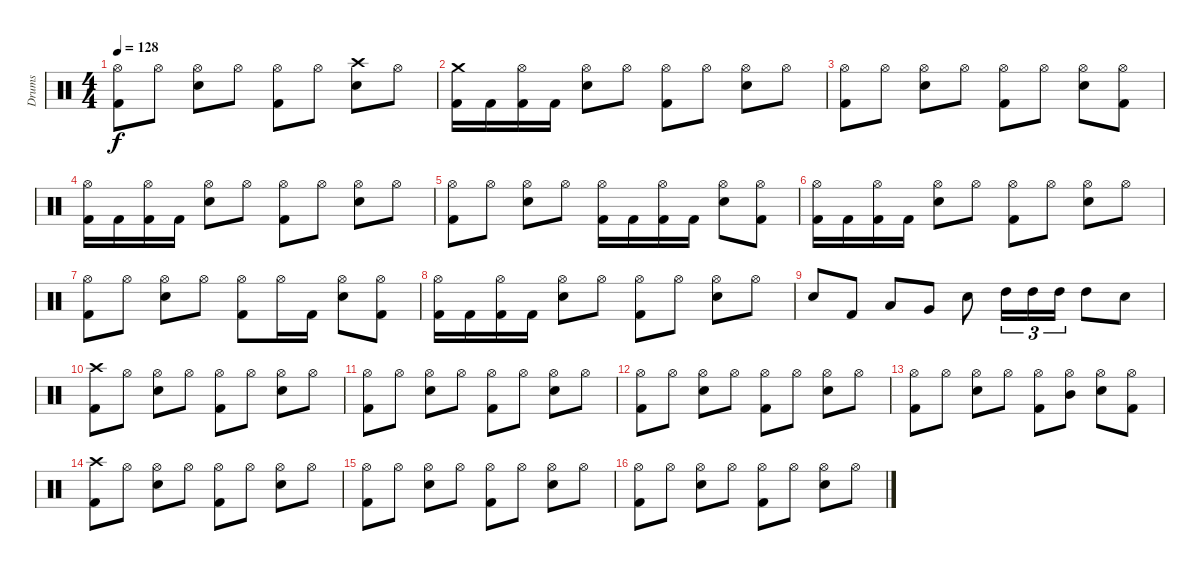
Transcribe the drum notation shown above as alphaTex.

\track ("Drums" "Drums") {instrument percussion}
\staff {score}
\articulation defaults
\ts (4 4)
\tempo 128
\clef neutral
\ks c
("Hi-Hat (open)" "Kick (hit) 2").8{dy f} "Hi-Hat (open)".8 ("Hi-Hat (open)" "Snare (hit) 2").8 "Hi-Hat (open)".8 ("Hi-Hat (open)" "Kick (hit) 2").8 "Hi-Hat (open)".8 ("Crash high (hit)" "Snare (hit) 2").8 "Hi-Hat (open)".8 |
("Crash medium (hit)" "Kick (hit) 2").16 "Kick (hit) 2".16 ("Hi-Hat (open)" "Kick (hit) 2").16 "Kick (hit) 2".16 ("Hi-Hat (open)" "Snare (hit) 2").8 "Hi-Hat (open)".8 ("Hi-Hat (open)" "Kick (hit) 2").8 "Hi-Hat (open)".8 ("Hi-Hat (open)" "Snare (hit) 2").8 "Hi-Hat (open)".8 |
("Hi-Hat (open)" "Kick (hit) 2").8 "Hi-Hat (open)".8 ("Hi-Hat (open)" "Snare (hit) 2").8 "Hi-Hat (open)".8 ("Hi-Hat (open)" "Kick (hit) 2").8 "Hi-Hat (open)".8 ("Hi-Hat (open)" "Snare (hit) 2").8 ("Hi-Hat (open)" "Kick (hit) 2").8 |
("Hi-Hat (open)" "Kick (hit) 2").16 "Kick (hit) 2".16 ("Hi-Hat (open)" "Kick (hit) 2").16 "Kick (hit) 2".16 ("Hi-Hat (open)" "Snare (hit) 2").8 "Hi-Hat (open)".8 ("Hi-Hat (open)" "Kick (hit) 2").8 "Hi-Hat (open)".8 ("Hi-Hat (open)" "Snare (hit) 2").8 "Hi-Hat (open)".8 |
("Hi-Hat (open)" "Kick (hit) 2").8 "Hi-Hat (open)".8 ("Hi-Hat (open)" "Snare (hit) 2").8 "Hi-Hat (open)".8 ("Hi-Hat (open)" "Kick (hit) 2").16 "Kick (hit) 2".16 ("Hi-Hat (open)" "Kick (hit) 2").16 "Kick (hit) 2".16 ("Hi-Hat (open)" "Snare (hit) 2").8 ("Hi-Hat (open)" "Kick (hit) 2").8 |
("Hi-Hat (open)" "Kick (hit) 2").16 "Kick (hit) 2".16 ("Hi-Hat (open)" "Kick (hit) 2").16 "Kick (hit) 2".16 ("Hi-Hat (open)" "Snare (hit) 2").8 "Hi-Hat (open)".8 ("Hi-Hat (open)" "Kick (hit) 2").8 "Hi-Hat (open)".8 ("Hi-Hat (open)" "Snare (hit) 2").8 "Hi-Hat (open)".8 |
("Hi-Hat (open)" "Kick (hit) 2").8 "Hi-Hat (open)".8 ("Hi-Hat (open)" "Snare (hit) 2").8 "Hi-Hat (open)".8 ("Hi-Hat (open)" "Kick (hit) 2").8 "Hi-Hat (open)".16 "Kick (hit) 2".16 ("Hi-Hat (open)" "Snare (hit) 2").8 ("Hi-Hat (open)" "Kick (hit) 2").8 |
("Hi-Hat (open)" "Kick (hit) 2").16 "Kick (hit) 2".16 ("Hi-Hat (open)" "Kick (hit) 2").16 "Kick (hit) 2".16 ("Hi-Hat (open)" "Snare (hit) 2").8 "Hi-Hat (open)".8 ("Hi-Hat (open)" "Kick (hit) 2").8 "Hi-Hat (open)".8 ("Hi-Hat (open)" "Snare (hit) 2").8 "Hi-Hat (open)".8 |
"Snare (hit) 2".8 "Kick (hit) 2".8 "Low Tom (hit)".8 "Very Low Tom (hit)".8 "Snare (hit) 2".8 "High Tom (hit)".16{tu (3 2)} "High Tom (hit)".16{tu (3 2)} "High Tom (hit)".16{tu (3 2)} "High Tom (hit)".8 "Snare (hit) 2".8 |
("Crash high (hit)" "Kick (hit) 2").8 "Hi-Hat (open)".8 ("Hi-Hat (open)" "Snare (hit) 2").8 "Hi-Hat (open)".8 ("Hi-Hat (open)" "Kick (hit) 2").8 "Hi-Hat (open)".8 ("Hi-Hat (open)" "Snare (hit) 2").8 "Hi-Hat (open)".8 |
("Hi-Hat (open)" "Kick (hit) 2").8 "Hi-Hat (open)".8 ("Hi-Hat (open)" "Snare (hit) 2").8 "Hi-Hat (open)".8 ("Hi-Hat (open)" "Kick (hit) 2").8 "Hi-Hat (open)".8 ("Hi-Hat (open)" "Snare (hit) 2").8 "Hi-Hat (open)".8 |
("Hi-Hat (open)" "Kick (hit) 2").8 "Hi-Hat (open)".8 ("Hi-Hat (open)" "Snare (hit) 2").8 "Hi-Hat (open)".8 ("Hi-Hat (open)" "Kick (hit) 2").8 "Hi-Hat (open)".8 ("Hi-Hat (open)" "Snare (hit) 2").8 "Hi-Hat (open)".8 |
("Hi-Hat (open)" "Kick (hit) 2").8 "Hi-Hat (open)".8 ("Hi-Hat (open)" "Snare (hit) 2").8 "Hi-Hat (open)".8 ("Hi-Hat (open)" "Kick (hit) 2").8 ("Hi-Hat (open)" "Mid Tom (hit)").8 ("Hi-Hat (open)" "Snare (hit) 2").8 ("Hi-Hat (open)" "Kick (hit) 2").8 |
("Crash high (hit)" "Kick (hit) 2").8 "Hi-Hat (open)".8 ("Hi-Hat (open)" "Snare (hit) 2").8 "Hi-Hat (open)".8 ("Hi-Hat (open)" "Kick (hit) 2").8 "Hi-Hat (open)".8 ("Hi-Hat (open)" "Snare (hit) 2").8 "Hi-Hat (open)".8 |
("Hi-Hat (open)" "Kick (hit) 2").8 "Hi-Hat (open)".8 ("Hi-Hat (open)" "Snare (hit) 2").8 "Hi-Hat (open)".8 ("Hi-Hat (open)" "Kick (hit) 2").8 "Hi-Hat (open)".8 ("Hi-Hat (open)" "Snare (hit) 2").8 "Hi-Hat (open)".8 |
("Hi-Hat (open)" "Kick (hit) 2").8 "Hi-Hat (open)".8 ("Hi-Hat (open)" "Snare (hit) 2").8 "Hi-Hat (open)".8 ("Hi-Hat (open)" "Kick (hit) 2").8 "Hi-Hat (open)".8 ("Hi-Hat (open)" "Snare (hit) 2").8 "Hi-Hat (open)".8
